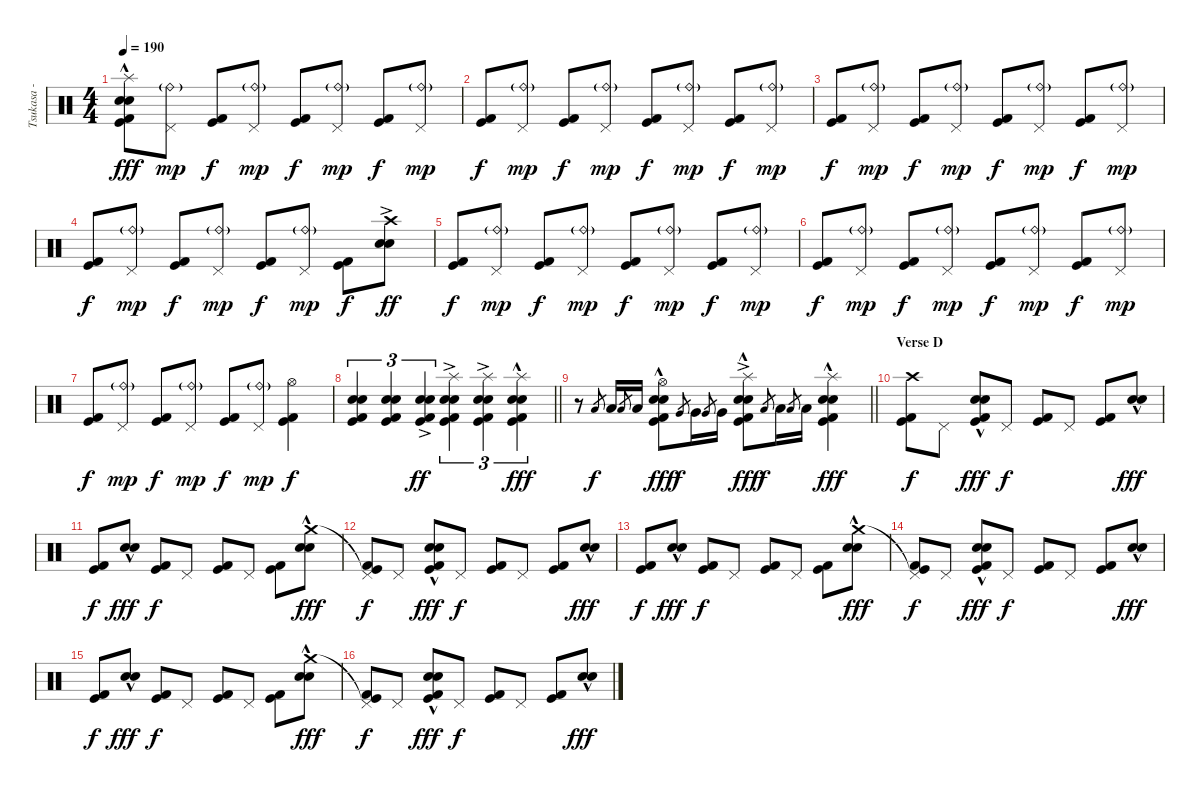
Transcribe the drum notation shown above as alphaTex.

\track ("Tsukasa - Drums" "Tsukasa - ") {instrument percussion}
\staff {score}
\articulation defaults
\ts (4 4)
\section ("" "")
\tempo 190
\clef neutral
\ks c
("Splash (hit)"{hac} "Electric Snare (hit)"{hac} "Snare (hit) 2" "Kick (hit)" "Kick (hit) 2").8{dy fff} ("Ride (bell)"{g} "Pedal Hi-Hat (hit)").8{dy mp} ("Kick (hit)" "Kick (hit) 2").8{dy f} ("Ride (bell)"{g} "Pedal Hi-Hat (hit)").8{dy mp} ("Kick (hit)" "Kick (hit) 2").8{dy f} ("Ride (bell)"{g} "Pedal Hi-Hat (hit)").8{dy mp} ("Kick (hit)" "Kick (hit) 2").8{dy f} ("Ride (bell)"{g} "Pedal Hi-Hat (hit)").8{dy mp} |
("Kick (hit)" "Kick (hit) 2").8{dy f} ("Ride (bell)"{g} "Pedal Hi-Hat (hit)").8{dy mp} ("Kick (hit)" "Kick (hit) 2").8{dy f} ("Ride (bell)"{g} "Pedal Hi-Hat (hit)").8{dy mp} ("Kick (hit)" "Kick (hit) 2").8{dy f} ("Ride (bell)"{g} "Pedal Hi-Hat (hit)").8{dy mp} ("Kick (hit)" "Kick (hit) 2").8{dy f} ("Ride (bell)"{g} "Pedal Hi-Hat (hit)").8{dy mp} |
("Kick (hit)" "Kick (hit) 2").8{dy f} ("Ride (bell)"{g} "Pedal Hi-Hat (hit)").8{dy mp} ("Kick (hit)" "Kick (hit) 2").8{dy f} ("Ride (bell)"{g} "Pedal Hi-Hat (hit)").8{dy mp} ("Kick (hit)" "Kick (hit) 2").8{dy f} ("Ride (bell)"{g} "Pedal Hi-Hat (hit)").8{dy mp} ("Kick (hit)" "Kick (hit) 2").8{dy f} ("Ride (bell)"{g} "Pedal Hi-Hat (hit)").8{dy mp} |
("Kick (hit)" "Kick (hit) 2").8{dy f} ("Ride (bell)"{g} "Pedal Hi-Hat (hit)").8{dy mp} ("Kick (hit)" "Kick (hit) 2").8{dy f} ("Ride (bell)"{g} "Pedal Hi-Hat (hit)").8{dy mp} ("Kick (hit)" "Kick (hit) 2").8{dy f} ("Ride (bell)"{g} "Pedal Hi-Hat (hit)").8{dy mp} ("Kick (hit)" "Kick (hit) 2").8{dy f} ("Crash high (hit)" "Electric Snare (hit)"{ac} "Snare (hit) 2").8{dy ff} |
("Kick (hit)" "Kick (hit) 2").8{dy f} ("Ride (bell)"{g} "Pedal Hi-Hat (hit)").8{dy mp} ("Kick (hit)" "Kick (hit) 2").8{dy f} ("Ride (bell)"{g} "Pedal Hi-Hat (hit)").8{dy mp} ("Kick (hit)" "Kick (hit) 2").8{dy f} ("Ride (bell)"{g} "Pedal Hi-Hat (hit)").8{dy mp} ("Kick (hit)" "Kick (hit) 2").8{dy f} ("Ride (bell)"{g} "Pedal Hi-Hat (hit)").8{dy mp} |
("Kick (hit)" "Kick (hit) 2").8{dy f} ("Ride (bell)"{g} "Pedal Hi-Hat (hit)").8{dy mp} ("Kick (hit)" "Kick (hit) 2").8{dy f} ("Ride (bell)"{g} "Pedal Hi-Hat (hit)").8{dy mp} ("Kick (hit)" "Kick (hit) 2").8{dy f} ("Ride (bell)"{g} "Pedal Hi-Hat (hit)").8{dy mp} ("Kick (hit)" "Kick (hit) 2").8{dy f} ("Ride (bell)"{g} "Pedal Hi-Hat (hit)").8{dy mp} |
("Kick (hit)" "Kick (hit) 2").8{dy f} ("Ride (bell)"{g} "Pedal Hi-Hat (hit)").8{dy mp} ("Kick (hit)" "Kick (hit) 2").8{dy f} ("Ride (bell)"{g} "Pedal Hi-Hat (hit)").8{dy mp} ("Kick (hit)" "Kick (hit) 2").8{dy f} ("Ride (bell)"{g} "Pedal Hi-Hat (hit)").8{dy mp} ("Hi-Hat (open)" "Kick (hit)" "Kick (hit) 2").4{dy f} |
\barLineRight lightlight
("Electric Snare (hit)" "Snare (hit) 2" "Kick (hit)" "Kick (hit) 2").4{tu (3 2)} ("Electric Snare (hit)" "Snare (hit) 2" "Kick (hit)" "Kick (hit) 2").4{tu (3 2)} ("Electric Snare (hit)"{ac} "Snare (hit) 2" "Kick (hit)" "Kick (hit) 2").4{tu (3 2) dy ff} ("Splash (hit)" "Electric Snare (hit)"{ac} "Snare (hit) 2" "Kick (hit)" "Kick (hit) 2").4{tu (3 2)} ("Splash (hit)"{ac} "Electric Snare (hit)"{ac} "Snare (hit) 2" "Kick (hit)" "Kick (hit) 2").4{tu (3 2)} ("Splash (hit)"{hac} "Electric Snare (hit)"{hac} "Snare (hit) 2" "Kick (hit)" "Kick (hit) 2").4{tu (3 2) dy fff} |
\barLineRight lightlight
r.8 "Low Tom (hit)".8{gr dy f} "Low Tom (hit)".16 "Low Tom (hit)".8{gr} "Low Tom (hit)".16 ("Hi-Hat (open)" "Electric Snare (hit)"{hac} "Snare (hit) 2" "Kick (hit)" "Kick (hit) 2").8{dy fff} "Very Low Tom (hit)".8{gr dy f} "Very Low Tom (hit)".16 "Very Low Tom (hit)".8{gr} "Very Low Tom (hit)".16 ("Splash (hit)"{ac} "Electric Snare (hit)"{hac} "Snare (hit) 2" "Kick (hit)" "Kick (hit) 2").8{dy fff} "Low Tom (hit)".8{gr dy f} "Low Tom (hit)".16 "Low Tom (hit)".8{gr} "Low Tom (hit)".16 ("Splash (hit)"{hac} "Electric Snare (hit)"{hac} "Snare (hit) 2" "Kick (hit)" "Kick (hit) 2").4{dy fff} |
\section ("" "Verse D")
("Crash high (hit)" "Kick (hit)" "Kick (hit) 2").8{dy f} "Pedal Hi-Hat (hit)".8 ("Electric Snare (hit)"{hac} "Snare (hit) 2" "Kick (hit)" "Kick (hit) 2").8{dy fff} "Pedal Hi-Hat (hit)".8{dy f} ("Kick (hit)" "Kick (hit) 2").8 "Pedal Hi-Hat (hit)".8 ("Kick (hit)" "Kick (hit) 2").8 ("Electric Snare (hit)"{hac} "Snare (hit) 2").8{dy fff} |
("Kick (hit)" "Kick (hit) 2").8{dy f} ("Electric Snare (hit)"{hac} "Snare (hit) 2").8{dy fff} ("Kick (hit)" "Kick (hit) 2").8{dy f} "Pedal Hi-Hat (hit)".8 ("Kick (hit)" "Kick (hit) 2").8 "Pedal Hi-Hat (hit)".8 ("Kick (hit)" "Kick (hit) 2").8 ("Crash medium (hit)" "Electric Snare (hit)"{hac} "Snare (hit) 2").8{dy fff} |
("Pedal Hi-Hat (hit)"{t} "Kick (hit)" "Kick (hit) 2").8{dy f} "Pedal Hi-Hat (hit)".8 ("Electric Snare (hit)"{hac} "Snare (hit) 2" "Kick (hit)" "Kick (hit) 2").8{dy fff} "Pedal Hi-Hat (hit)".8{dy f} ("Kick (hit)" "Kick (hit) 2").8 "Pedal Hi-Hat (hit)".8 ("Kick (hit)" "Kick (hit) 2").8 ("Electric Snare (hit)"{hac} "Snare (hit) 2").8{dy fff} |
("Kick (hit)" "Kick (hit) 2").8{dy f} ("Electric Snare (hit)"{hac} "Snare (hit) 2").8{dy fff} ("Kick (hit)" "Kick (hit) 2").8{dy f} "Pedal Hi-Hat (hit)".8 ("Kick (hit)" "Kick (hit) 2").8 "Pedal Hi-Hat (hit)".8 ("Kick (hit)" "Kick (hit) 2").8 ("Crash medium (hit)" "Electric Snare (hit)"{hac} "Snare (hit) 2").8{dy fff} |
("Pedal Hi-Hat (hit)"{t} "Kick (hit)" "Kick (hit) 2").8{dy f} "Pedal Hi-Hat (hit)".8 ("Electric Snare (hit)"{hac} "Snare (hit) 2" "Kick (hit)" "Kick (hit) 2").8{dy fff} "Pedal Hi-Hat (hit)".8{dy f} ("Kick (hit)" "Kick (hit) 2").8 "Pedal Hi-Hat (hit)".8 ("Kick (hit)" "Kick (hit) 2").8 ("Electric Snare (hit)"{hac} "Snare (hit) 2").8{dy fff} |
("Kick (hit)" "Kick (hit) 2").8{dy f} ("Electric Snare (hit)"{hac} "Snare (hit) 2").8{dy fff} ("Kick (hit)" "Kick (hit) 2").8{dy f} "Pedal Hi-Hat (hit)".8 ("Kick (hit)" "Kick (hit) 2").8 "Pedal Hi-Hat (hit)".8 ("Kick (hit)" "Kick (hit) 2").8 ("Crash medium (hit)" "Electric Snare (hit)"{hac} "Snare (hit) 2").8{dy fff} |
("Pedal Hi-Hat (hit)"{t} "Kick (hit)" "Kick (hit) 2").8{dy f} "Pedal Hi-Hat (hit)".8 ("Electric Snare (hit)"{hac} "Snare (hit) 2" "Kick (hit)" "Kick (hit) 2").8{dy fff} "Pedal Hi-Hat (hit)".8{dy f} ("Kick (hit)" "Kick (hit) 2").8 "Pedal Hi-Hat (hit)".8 ("Kick (hit)" "Kick (hit) 2").8 ("Electric Snare (hit)"{hac} "Snare (hit) 2").8{dy fff}
